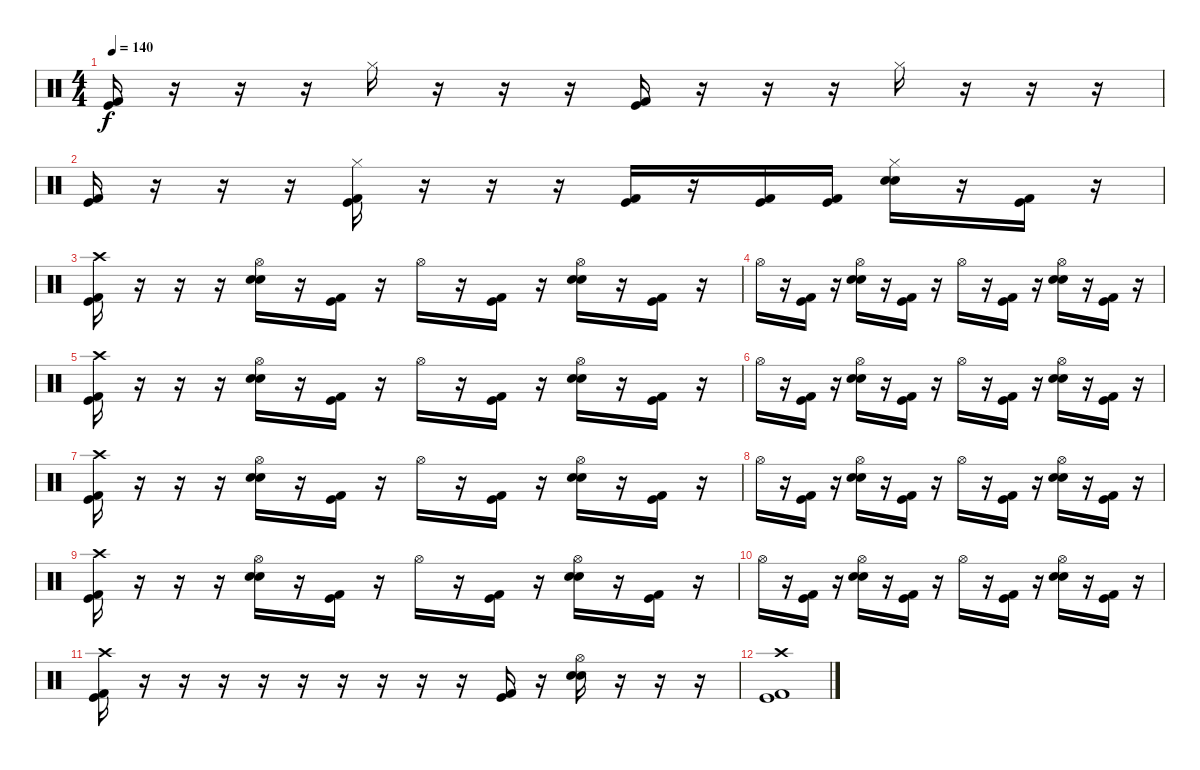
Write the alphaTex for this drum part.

\track "" {instrument percussion}
\staff {score}
\articulation defaults
\ts (4 4)
\tempo 140
\clef neutral
\ks c
("Kick (hit)" "Kick (hit) 2").16{dy f} r.16 r.16 r.16 "Hi-Hat (closed)".16 r.16 r.16 r.16 ("Kick (hit)" "Kick (hit) 2").16 r.16 r.16 r.16 "Hi-Hat (closed)".16 r.16 r.16 r.16 |
("Kick (hit)" "Kick (hit) 2").16 r.16 r.16 r.16 ("Hi-Hat (closed)" "Kick (hit)" "Kick (hit) 2").16 r.16 r.16 r.16 ("Kick (hit)" "Kick (hit) 2").16 r.16 ("Kick (hit)" "Kick (hit) 2").16 ("Kick (hit)" "Kick (hit) 2").16 ("Hi-Hat (closed)" "Electric Snare (hit)" "Electric Snare (hit)").16 r.16 ("Kick (hit)" "Kick (hit) 2").16 r.16 |
("Crash high (hit)" "Kick (hit)" "Kick (hit) 2").16 r.16 r.16 r.16 ("Hi-Hat (open)" "Electric Snare (hit)" "Electric Snare (hit)").16 r.16 ("Kick (hit)" "Kick (hit) 2").16 r.16 "Hi-Hat (open)".16 r.16 ("Kick (hit)" "Kick (hit) 2").16 r.16 ("Hi-Hat (open)" "Electric Snare (hit)" "Electric Snare (hit)").16 r.16 ("Kick (hit)" "Kick (hit) 2").16 r.16 |
"Hi-Hat (open)".16 r.16 ("Kick (hit)" "Kick (hit) 2").16 r.16 ("Hi-Hat (open)" "Electric Snare (hit)" "Electric Snare (hit)").16 r.16 ("Kick (hit)" "Kick (hit) 2").16 r.16 "Hi-Hat (open)".16 r.16 ("Kick (hit)" "Kick (hit) 2").16 r.16 ("Hi-Hat (open)" "Electric Snare (hit)" "Electric Snare (hit)").16 r.16 ("Kick (hit)" "Kick (hit) 2").16 r.16 |
("Crash high (hit)" "Kick (hit)" "Kick (hit) 2").16 r.16 r.16 r.16 ("Hi-Hat (open)" "Electric Snare (hit)" "Electric Snare (hit)").16 r.16 ("Kick (hit)" "Kick (hit) 2").16 r.16 "Hi-Hat (open)".16 r.16 ("Kick (hit)" "Kick (hit) 2").16 r.16 ("Hi-Hat (open)" "Electric Snare (hit)" "Electric Snare (hit)").16 r.16 ("Kick (hit)" "Kick (hit) 2").16 r.16 |
"Hi-Hat (open)".16 r.16 ("Kick (hit)" "Kick (hit) 2").16 r.16 ("Hi-Hat (open)" "Electric Snare (hit)" "Electric Snare (hit)").16 r.16 ("Kick (hit)" "Kick (hit) 2").16 r.16 "Hi-Hat (open)".16 r.16 ("Kick (hit)" "Kick (hit) 2").16 r.16 ("Hi-Hat (open)" "Electric Snare (hit)" "Electric Snare (hit)").16 r.16 ("Kick (hit)" "Kick (hit) 2").16 r.16 |
("Crash high (hit)" "Kick (hit)" "Kick (hit) 2").16 r.16 r.16 r.16 ("Hi-Hat (open)" "Electric Snare (hit)" "Electric Snare (hit)").16 r.16 ("Kick (hit)" "Kick (hit) 2").16 r.16 "Hi-Hat (open)".16 r.16 ("Kick (hit)" "Kick (hit) 2").16 r.16 ("Hi-Hat (open)" "Electric Snare (hit)" "Electric Snare (hit)").16 r.16 ("Kick (hit)" "Kick (hit) 2").16 r.16 |
"Hi-Hat (open)".16 r.16 ("Kick (hit)" "Kick (hit) 2").16 r.16 ("Hi-Hat (open)" "Electric Snare (hit)" "Electric Snare (hit)").16 r.16 ("Kick (hit)" "Kick (hit) 2").16 r.16 "Hi-Hat (open)".16 r.16 ("Kick (hit)" "Kick (hit) 2").16 r.16 ("Hi-Hat (open)" "Electric Snare (hit)" "Electric Snare (hit)").16 r.16 ("Kick (hit)" "Kick (hit) 2").16 r.16 |
("Crash high (hit)" "Kick (hit)" "Kick (hit) 2").16 r.16 r.16 r.16 ("Hi-Hat (open)" "Electric Snare (hit)" "Electric Snare (hit)").16 r.16 ("Kick (hit)" "Kick (hit) 2").16 r.16 "Hi-Hat (open)".16 r.16 ("Kick (hit)" "Kick (hit) 2").16 r.16 ("Hi-Hat (open)" "Electric Snare (hit)" "Electric Snare (hit)").16 r.16 ("Kick (hit)" "Kick (hit) 2").16 r.16 |
"Hi-Hat (open)".16 r.16 ("Kick (hit)" "Kick (hit) 2").16 r.16 ("Hi-Hat (open)" "Electric Snare (hit)" "Electric Snare (hit)").16 r.16 ("Kick (hit)" "Kick (hit) 2").16 r.16 "Hi-Hat (open)".16 r.16 ("Kick (hit)" "Kick (hit) 2").16 r.16 ("Hi-Hat (open)" "Electric Snare (hit)" "Electric Snare (hit)").16 r.16 ("Kick (hit)" "Kick (hit) 2").16 r.16 |
("Crash high (hit)" "Kick (hit)" "Kick (hit) 2").16 r.16 r.16 r.16 r.16 r.16 r.16 r.16 r.16 r.16 ("Kick (hit)" "Kick (hit) 2").16 r.16 ("Hi-Hat (open)" "Electric Snare (hit)" "Electric Snare (hit)").16 r.16 r.16 r.16 |
("Crash high (hit)" "Kick (hit)" "Kick (hit) 2").1
